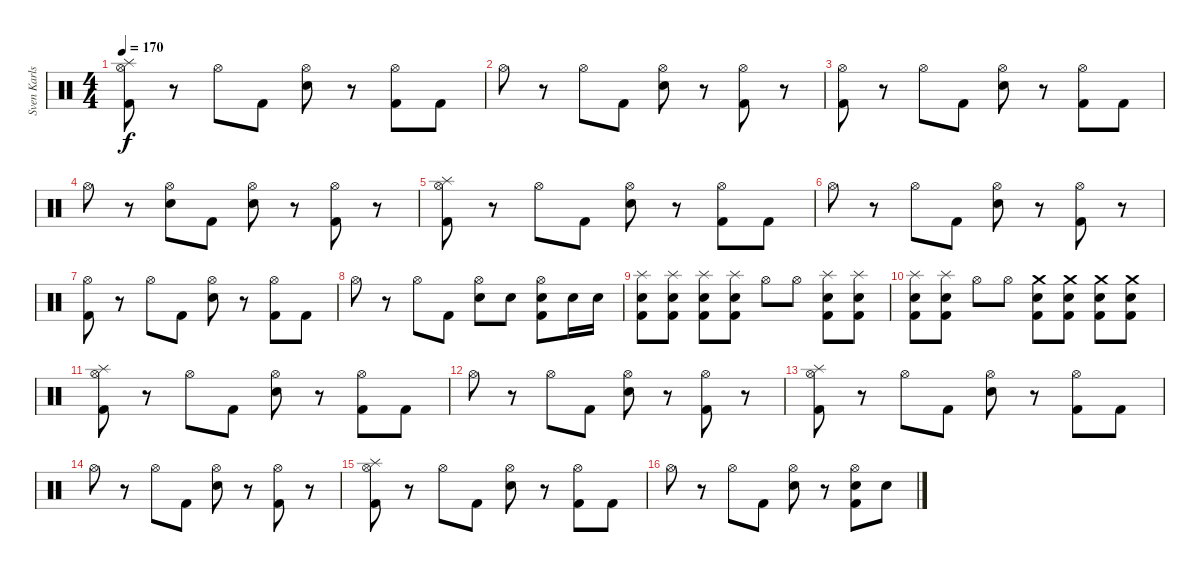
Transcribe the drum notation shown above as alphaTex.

\track ("Sven Karlsson" "Sven Karls") {instrument percussion}
\staff {score}
\articulation defaults
\ts (4 4)
\tempo 170
\clef neutral
\ks c
("Hi-Hat (open)" "Splash (hit)" "Kick (hit) 2").8{dy f} r.8 "Hi-Hat (open)".8 "Kick (hit) 2".8 ("Hi-Hat (open)" "Electric Snare (hit)").8 r.8 ("Hi-Hat (open)" "Kick (hit) 2").8 "Kick (hit) 2".8 |
"Hi-Hat (open)".8 r.8 "Hi-Hat (open)".8 "Kick (hit) 2".8 ("Hi-Hat (open)" "Electric Snare (hit)").8 r.8 ("Hi-Hat (open)" "Kick (hit) 2").8 r.8 |
("Hi-Hat (open)" "Kick (hit) 2").8 r.8 "Hi-Hat (open)".8 "Kick (hit) 2".8 ("Hi-Hat (open)" "Electric Snare (hit)").8 r.8 ("Hi-Hat (open)" "Kick (hit) 2").8 "Kick (hit) 2".8 |
"Hi-Hat (open)".8 r.8 ("Hi-Hat (open)" "Electric Snare (hit)").8 "Kick (hit) 2".8 ("Hi-Hat (open)" "Electric Snare (hit)").8 r.8 ("Hi-Hat (open)" "Kick (hit) 2").8 r.8 |
("Hi-Hat (open)" "Splash (hit)" "Kick (hit) 2").8 r.8 "Hi-Hat (open)".8 "Kick (hit) 2".8 ("Hi-Hat (open)" "Electric Snare (hit)").8 r.8 ("Hi-Hat (open)" "Kick (hit) 2").8 "Kick (hit) 2".8 |
"Hi-Hat (open)".8 r.8 "Hi-Hat (open)".8 "Kick (hit) 2".8 ("Hi-Hat (open)" "Electric Snare (hit)").8 r.8 ("Hi-Hat (open)" "Kick (hit) 2").8 r.8 |
("Hi-Hat (open)" "Kick (hit) 2").8 r.8 "Hi-Hat (open)".8 "Kick (hit) 2".8 ("Hi-Hat (open)" "Electric Snare (hit)").8 r.8 ("Hi-Hat (open)" "Kick (hit) 2").8 "Kick (hit) 2".8 |
"Hi-Hat (open)".8 r.8 "Hi-Hat (open)".8 "Kick (hit) 2".8 ("Hi-Hat (open)" "Electric Snare (hit)").8 "Electric Snare (hit)".8 ("Hi-Hat (open)" "Electric Snare (hit)" "Kick (hit) 2").8 "Electric Snare (hit)".16 "Electric Snare (hit)".16 |
("Splash (hit)" "Electric Snare (hit)" "Kick (hit) 2").8 ("Splash (hit)" "Electric Snare (hit)" "Kick (hit) 2").8 ("Splash (hit)" "Electric Snare (hit)" "Kick (hit) 2").8 ("Splash (hit)" "Electric Snare (hit)" "Kick (hit) 2").8 "Hi-Hat (open)".8 "Hi-Hat (open)".8 ("Splash (hit)" "Electric Snare (hit)" "Kick (hit) 2").8 ("Splash (hit)" "Electric Snare (hit)" "Kick (hit) 2").8 |
("Splash (hit)" "Electric Snare (hit)" "Kick (hit) 2").8 ("Splash (hit)" "Electric Snare (hit)" "Kick (hit) 2").8 "Hi-Hat (open)".8 "Hi-Hat (open)".8 ("Crash medium (hit)" "Electric Snare (hit)" "Kick (hit) 2").8 ("Crash medium (hit)" "Electric Snare (hit)" "Kick (hit) 2").8 ("Crash medium (hit)" "Electric Snare (hit)" "Kick (hit) 2").8 ("Crash medium (hit)" "Electric Snare (hit)" "Kick (hit) 2").8 |
("Hi-Hat (open)" "Splash (hit)" "Kick (hit) 2").8 r.8 "Hi-Hat (open)".8 "Kick (hit) 2".8 ("Hi-Hat (open)" "Electric Snare (hit)").8 r.8 ("Hi-Hat (open)" "Kick (hit) 2").8 "Kick (hit) 2".8 |
"Hi-Hat (open)".8 r.8 "Hi-Hat (open)".8 "Kick (hit) 2".8 ("Hi-Hat (open)" "Electric Snare (hit)").8 r.8 ("Hi-Hat (open)" "Kick (hit) 2").8 r.8 |
("Hi-Hat (open)" "Splash (hit)" "Kick (hit) 2").8 r.8 "Hi-Hat (open)".8 "Kick (hit) 2".8 ("Hi-Hat (open)" "Electric Snare (hit)").8 r.8 ("Hi-Hat (open)" "Kick (hit) 2").8 "Kick (hit) 2".8 |
"Hi-Hat (open)".8 r.8 "Hi-Hat (open)".8 "Kick (hit) 2".8 ("Hi-Hat (open)" "Electric Snare (hit)").8 r.8 ("Hi-Hat (open)" "Kick (hit) 2").8 r.8 |
("Hi-Hat (open)" "Splash (hit)" "Kick (hit) 2").8 r.8 "Hi-Hat (open)".8 "Kick (hit) 2".8 ("Hi-Hat (open)" "Electric Snare (hit)").8 r.8 ("Hi-Hat (open)" "Kick (hit) 2").8 "Kick (hit) 2".8 |
"Hi-Hat (open)".8 r.8 "Hi-Hat (open)".8 "Kick (hit) 2".8 ("Hi-Hat (open)" "Electric Snare (hit)").8 r.8 ("Hi-Hat (open)" "Electric Snare (hit)" "Kick (hit) 2").8 "Electric Snare (hit)".8
